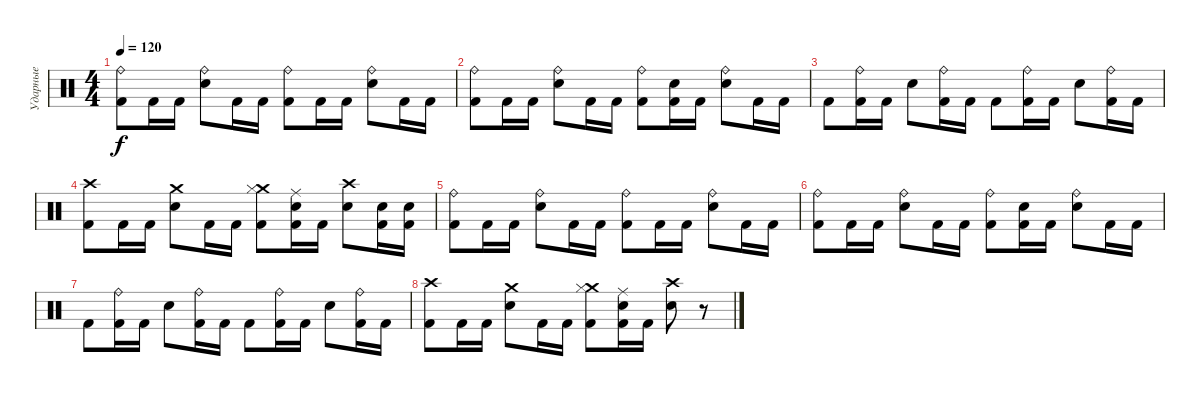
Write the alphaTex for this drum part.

\track ("Ударные" "Ударные") {instrument percussion}
\staff {score}
\articulation defaults
\ts (4 4)
\tempo 120
\clef neutral
\ks c
("Ride (bell)" "Kick (hit) 2").8{dy f} "Kick (hit) 2".16 "Kick (hit) 2".16 ("Ride (bell)" "Electric Snare (hit)").8 "Kick (hit) 2".16 "Kick (hit) 2".16 ("Ride (bell)" "Kick (hit) 2").8 "Kick (hit) 2".16 "Kick (hit) 2".16 ("Ride (bell)" "Electric Snare (hit)").8 "Kick (hit) 2".16 "Kick (hit) 2".16 |
("Ride (bell)" "Kick (hit) 2").8 "Kick (hit) 2".16 "Kick (hit) 2".16 ("Ride (bell)" "Electric Snare (hit)").8 "Kick (hit) 2".16 "Kick (hit) 2".16 ("Ride (bell)" "Kick (hit) 2").8 ("Electric Snare (hit)" "Kick (hit) 2").16 "Kick (hit) 2".16 ("Ride (bell)" "Electric Snare (hit)").8 "Kick (hit) 2".16 "Kick (hit) 2".16 |
"Kick (hit) 2".8 ("Ride (bell)" "Kick (hit) 2").16 "Kick (hit) 2".16 "Electric Snare (hit)".8 ("Ride (bell)" "Kick (hit) 2").16 "Kick (hit) 2".16 "Kick (hit) 2".8 ("Ride (bell)" "Kick (hit) 2").16 "Kick (hit) 2".16 "Electric Snare (hit)".8 ("Ride (bell)" "Kick (hit) 2").16 "Kick (hit) 2".16 |
("Crash high (hit)" "Kick (hit) 2").8 "Kick (hit) 2".16 "Kick (hit) 2".16 ("Crash medium (hit)" "Electric Snare (hit)").8 "Kick (hit) 2".16 "Kick (hit) 2".16 ("Crash medium (hit)" "Hi-Hat (closed)" "Kick (hit) 2").8 ("Ride (middle)" "Electric Snare (hit)" "Kick (hit) 2").16 "Kick (hit) 2".16 ("Crash high (hit)" "Electric Snare (hit)").8 ("Electric Snare (hit)" "Kick (hit) 2").16 ("Electric Snare (hit)" "Kick (hit) 2").16 |
("Ride (bell)" "Kick (hit) 2").8 "Kick (hit) 2".16 "Kick (hit) 2".16 ("Ride (bell)" "Electric Snare (hit)").8 "Kick (hit) 2".16 "Kick (hit) 2".16 ("Ride (bell)" "Kick (hit) 2").8 "Kick (hit) 2".16 "Kick (hit) 2".16 ("Ride (bell)" "Electric Snare (hit)").8 "Kick (hit) 2".16 "Kick (hit) 2".16 |
("Ride (bell)" "Kick (hit) 2").8 "Kick (hit) 2".16 "Kick (hit) 2".16 ("Ride (bell)" "Electric Snare (hit)").8 "Kick (hit) 2".16 "Kick (hit) 2".16 ("Ride (bell)" "Kick (hit) 2").8 ("Electric Snare (hit)" "Kick (hit) 2").16 "Kick (hit) 2".16 ("Ride (bell)" "Electric Snare (hit)").8 "Kick (hit) 2".16 "Kick (hit) 2".16 |
"Kick (hit) 2".8 ("Ride (bell)" "Kick (hit) 2").16 "Kick (hit) 2".16 "Electric Snare (hit)".8 ("Ride (bell)" "Kick (hit) 2").16 "Kick (hit) 2".16 "Kick (hit) 2".8 ("Ride (bell)" "Kick (hit) 2").16 "Kick (hit) 2".16 "Electric Snare (hit)".8 ("Ride (bell)" "Kick (hit) 2").16 "Kick (hit) 2".16 |
("Crash high (hit)" "Kick (hit) 2").8 "Kick (hit) 2".16 "Kick (hit) 2".16 ("Crash medium (hit)" "Electric Snare (hit)").8 "Kick (hit) 2".16 "Kick (hit) 2".16 ("Crash medium (hit)" "Hi-Hat (closed)" "Kick (hit) 2").8 ("Ride (middle)" "Electric Snare (hit)" "Kick (hit) 2").16 "Kick (hit) 2".16 ("Crash high (hit)" "Electric Snare (hit)").8 r.8
